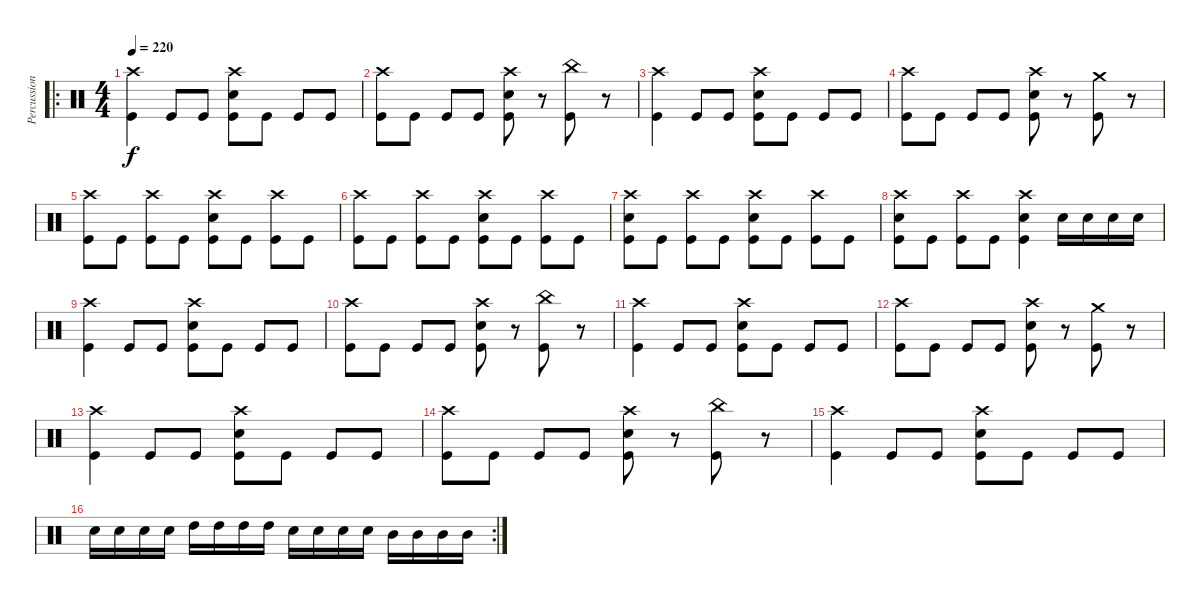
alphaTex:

\track ("Percussion" "Percussion") {instrument percussion}
\staff {score}
\articulation defaults
\ro
\ts (4 4)
\tempo 220
\clef neutral
\ks c
("Crash high (hit)" "Kick (hit)").4{dy f} "Kick (hit)".8 "Kick (hit)".8 ("Crash high (hit)" "Electric Snare (hit)" "Kick (hit)").8 "Kick (hit)".8 "Kick (hit)".8 "Kick (hit)".8 |
("Crash high (hit)" "Kick (hit)").8 "Kick (hit)".8 "Kick (hit)".8 "Kick (hit)".8 ("Crash high (hit)" "Electric Snare (hit)" "Kick (hit)").8 r.8 ("China (hit)" "Kick (hit)").8 r.8 |
("Crash high (hit)" "Kick (hit)").4 "Kick (hit)".8 "Kick (hit)".8 ("Crash high (hit)" "Electric Snare (hit)" "Kick (hit)").8 "Kick (hit)".8 "Kick (hit)".8 "Kick (hit)".8 |
("Crash high (hit)" "Kick (hit)").8 "Kick (hit)".8 "Kick (hit)".8 "Kick (hit)".8 ("Crash high (hit)" "Electric Snare (hit)" "Kick (hit)").8 r.8 ("Crash medium (hit)" "Kick (hit)").8 r.8 |
("Crash high (hit)" "Kick (hit)").8 "Kick (hit)".8 ("Crash high (hit)" "Kick (hit)").8 "Kick (hit)".8 ("Crash high (hit)" "Electric Snare (hit)" "Kick (hit)").8 "Kick (hit)".8 ("Crash high (hit)" "Kick (hit)").8 "Kick (hit)".8 |
("Crash high (hit)" "Kick (hit)").8 "Kick (hit)".8 ("Crash high (hit)" "Kick (hit)").8 "Kick (hit)".8 ("Crash high (hit)" "Electric Snare (hit)" "Kick (hit)").8 "Kick (hit)".8 ("Crash high (hit)" "Kick (hit)").8 "Kick (hit)".8 |
("Crash high (hit)" "Electric Snare (hit)" "Kick (hit)").8 "Kick (hit)".8 ("Crash high (hit)" "Kick (hit)").8 "Kick (hit)".8 ("Crash high (hit)" "Electric Snare (hit)" "Kick (hit)").8 "Kick (hit)".8 ("Crash high (hit)" "Kick (hit)").8 "Kick (hit)".8 |
("Crash high (hit)" "Electric Snare (hit)" "Kick (hit)").8 "Kick (hit)".8 ("Crash high (hit)" "Kick (hit)").8 "Kick (hit)".8 ("Crash high (hit)" "Electric Snare (hit)" "Kick (hit)").4 "Electric Snare (hit)".16 "Electric Snare (hit)".16 "Electric Snare (hit)".16 "Electric Snare (hit)".16 |
("Crash high (hit)" "Kick (hit)").4 "Kick (hit)".8 "Kick (hit)".8 ("Crash high (hit)" "Electric Snare (hit)" "Kick (hit)").8 "Kick (hit)".8 "Kick (hit)".8 "Kick (hit)".8 |
("Crash high (hit)" "Kick (hit)").8 "Kick (hit)".8 "Kick (hit)".8 "Kick (hit)".8 ("Crash high (hit)" "Electric Snare (hit)" "Kick (hit)").8 r.8 ("China (hit)" "Kick (hit)").8 r.8 |
("Crash high (hit)" "Kick (hit)").4 "Kick (hit)".8 "Kick (hit)".8 ("Crash high (hit)" "Electric Snare (hit)" "Kick (hit)").8 "Kick (hit)".8 "Kick (hit)".8 "Kick (hit)".8 |
("Crash high (hit)" "Kick (hit)").8 "Kick (hit)".8 "Kick (hit)".8 "Kick (hit)".8 ("Crash high (hit)" "Electric Snare (hit)" "Kick (hit)").8 r.8 ("Crash medium (hit)" "Kick (hit)").8 r.8 |
("Crash high (hit)" "Kick (hit)").4 "Kick (hit)".8 "Kick (hit)".8 ("Crash high (hit)" "Electric Snare (hit)" "Kick (hit)").8 "Kick (hit)".8 "Kick (hit)".8 "Kick (hit)".8 |
("Crash high (hit)" "Kick (hit)").8 "Kick (hit)".8 "Kick (hit)".8 "Kick (hit)".8 ("Crash high (hit)" "Electric Snare (hit)" "Kick (hit)").8 r.8 ("China (hit)" "Kick (hit)").8 r.8 |
("Crash high (hit)" "Kick (hit)").4 "Kick (hit)".8 "Kick (hit)".8 ("Crash high (hit)" "Electric Snare (hit)" "Kick (hit)").8 "Kick (hit)".8 "Kick (hit)".8 "Kick (hit)".8 |
\rc 2 "Electric Snare (hit)".16 "Electric Snare (hit)".16 "Electric Snare (hit)".16 "Electric Snare (hit)".16 "High Tom (hit)".16 "High Tom (hit)".16 "High Tom (hit)".16 "High Tom (hit)".16 "Electric Snare (hit)".16 "Electric Snare (hit)".16 "Electric Snare (hit)".16 "Electric Snare (hit)".16 "Mid Tom (hit)".16 "Mid Tom (hit)".16 "Mid Tom (hit)".16 "Mid Tom (hit)".16
